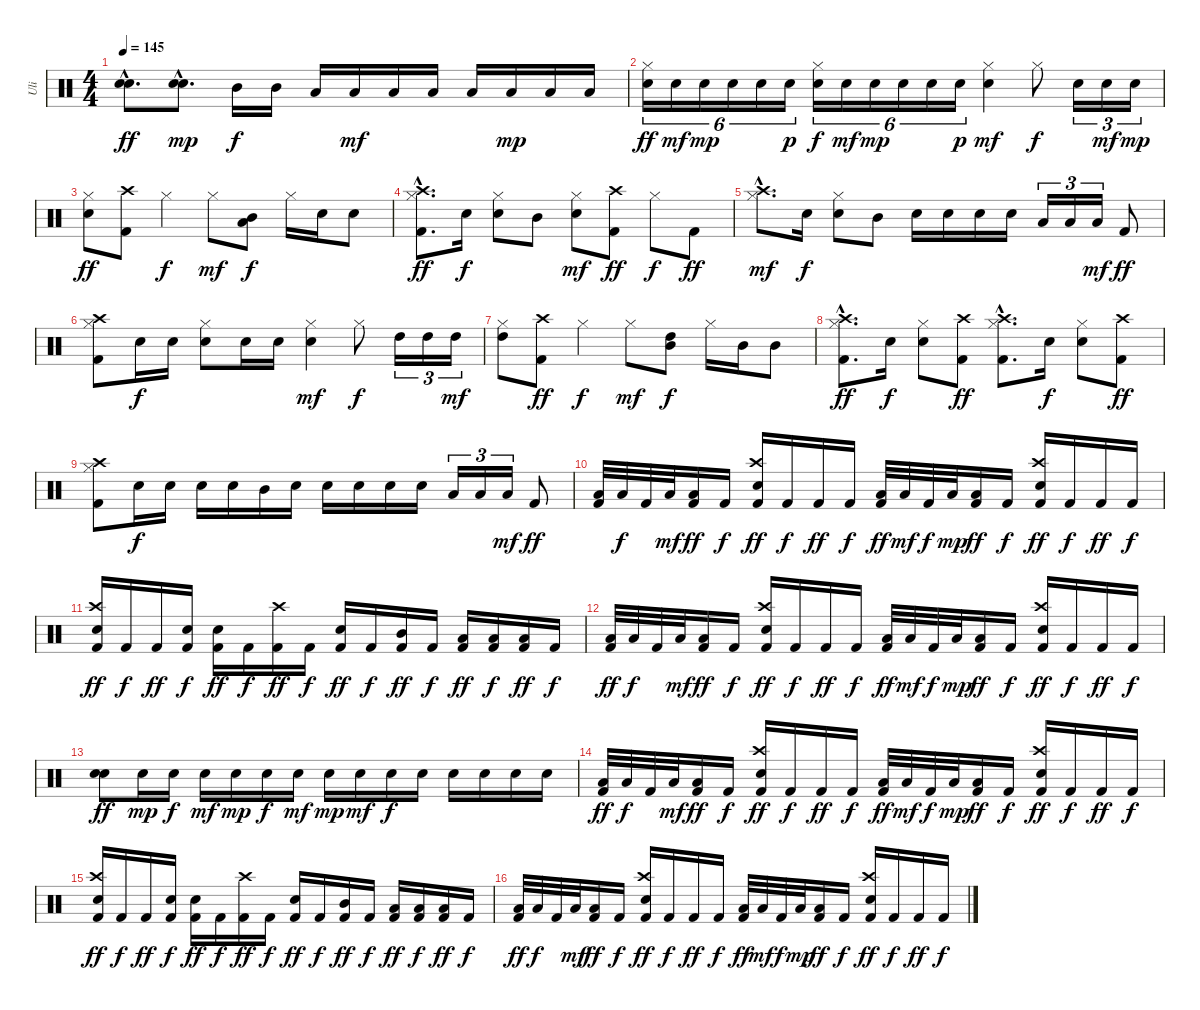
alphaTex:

\track ("Uli" "Uli") {instrument percussion}
\staff {score}
\articulation defaults
\ts (4 4)
\tempo 145
\clef neutral
\ks c
("Electric Snare (hit)"{hac} "Electric Snare (hit)"{hac}).8{d dy ff} ("Electric Snare (hit)"{hac} "Electric Snare (hit)"{hac}).8{d dy mp} "Mid Tom (hit)".16{dy f} "Mid Tom (hit)".16 "Low Tom (hit)".16 "Low Tom (hit)".16{dy mf} "Low Tom (hit)".16 "Low Tom (hit)".16 "Low Tom (hit)".16 "Low Tom (hit)".16{dy mp} "Low Tom (hit)".16 "Low Tom (hit)".16 |
("Hi-Hat (closed)" "Electric Snare (hit)").16{tu (6 4) dy ff} "Electric Snare (hit)".16{tu (6 4) dy mf} "Electric Snare (hit)".16{tu (6 4) dy mp} "Electric Snare (hit)".16{tu (6 4)} "Electric Snare (hit)".16{tu (6 4)} "Electric Snare (hit)".16{tu (6 4) dy p} ("Hi-Hat (closed)" "Electric Snare (hit)").16{tu (6 4) dy f} "Electric Snare (hit)".16{tu (6 4) dy mf} "Electric Snare (hit)".16{tu (6 4) dy mp} "Electric Snare (hit)".16{tu (6 4)} "Electric Snare (hit)".16{tu (6 4)} "Electric Snare (hit)".16{tu (6 4) dy p} ("Hi-Hat (closed)" "Electric Snare (hit)").4{dy mf} "Hi-Hat (closed)".8{dy f} "Electric Snare (hit)".16{tu (3 2)} "Electric Snare (hit)".16{tu (3 2) dy mf} "Electric Snare (hit)".16{tu (3 2) dy mp} |
("Hi-Hat (closed)" "Electric Snare (hit)").8{dy ff} ("Crash high (hit)" "Kick (hit) 2").8 "Hi-Hat (closed)".4{dy f} "Hi-Hat (closed)".8{dy mf} ("Low Tom (hit)" "Mid Tom (hit)").8{dy f} "Hi-Hat (closed)".16 "Electric Snare (hit)".16 "Electric Snare (hit)".8 |
("Crash high (hit)"{hac} "Hi-Hat (closed)"{hac} "Kick (hit) 2"{hac}).8{d dy ff} "Electric Snare (hit)".16{dy f} ("Hi-Hat (closed)" "Electric Snare (hit)").8 "Mid Tom (hit)".8 ("Hi-Hat (closed)" "Electric Snare (hit)").8{dy mf} ("Crash high (hit)" "Kick (hit) 2").8{dy ff} "Hi-Hat (closed)".8{dy f} "Kick (hit) 2".8{dy ff} |
("Crash high (hit)"{hac} "Hi-Hat (closed)"{hac}).8{d dy mf} "Electric Snare (hit)".16{dy f} ("Hi-Hat (closed)" "Electric Snare (hit)").8 "Mid Tom (hit)".8 "Electric Snare (hit)".16 "Electric Snare (hit)".16 "Electric Snare (hit)".16 "Electric Snare (hit)".16 "Low Tom (hit)".16{tu (3 2)} "Low Tom (hit)".16{tu (3 2)} "Low Tom (hit)".16{tu (3 2) dy mf} "Kick (hit) 2".8{dy ff} |
("Crash high (hit)" "Hi-Hat (closed)" "Kick (hit) 2").8 "Electric Snare (hit)".16{dy f} "Electric Snare (hit)".16 ("Hi-Hat (closed)" "Electric Snare (hit)").8 "Electric Snare (hit)".16 "Electric Snare (hit)".16 ("Hi-Hat (closed)" "Electric Snare (hit)").4{dy mf} "Hi-Hat (closed)".8{dy f} "High Tom (hit)".16{tu (3 2)} "High Tom (hit)".16{tu (3 2)} "High Tom (hit)".16{tu (3 2) dy mf} |
("Hi-Hat (closed)" "High Tom (hit)").8 ("Crash high (hit)" "Kick (hit) 2").8{dy ff} "Hi-Hat (closed)".4{dy f} "Hi-Hat (closed)".8{dy mf} ("Mid Tom (hit)" "High Tom (hit)").8{dy f} "Hi-Hat (closed)".16 "Mid Tom (hit)".16 "Mid Tom (hit)".8 |
("Crash high (hit)"{hac} "Hi-Hat (closed)"{hac} "Kick (hit) 2"{hac}).8{d dy ff} "Electric Snare (hit)".16{dy f} ("Hi-Hat (closed)" "Electric Snare (hit)").8 ("Crash high (hit)" "Kick (hit) 2").8{dy ff} ("Crash high (hit)"{hac} "Hi-Hat (closed)"{hac} "Kick (hit) 2"{hac}).8{d} "Electric Snare (hit)".16{dy f} ("Hi-Hat (closed)" "Electric Snare (hit)").8 ("Crash high (hit)" "Kick (hit) 2").8{dy ff} |
("Crash high (hit)" "Hi-Hat (closed)" "Kick (hit) 2").8 "Electric Snare (hit)".16{dy f} "Electric Snare (hit)".16 "Electric Snare (hit)".16 "Electric Snare (hit)".16 "Mid Tom (hit)".16 "Electric Snare (hit)".16 "Electric Snare (hit)".16 "Electric Snare (hit)".16 "Electric Snare (hit)".16 "Electric Snare (hit)".16 "Low Tom (hit)".16{tu (3 2)} "Low Tom (hit)".16{tu (3 2)} "Low Tom (hit)".16{tu (3 2) dy mf} "Kick (hit) 2".8{dy ff} |
("Low Tom (hit)" "Kick (hit) 2").32 "Low Tom (hit)".32{dy f} "Kick (hit) 2".32 "Low Tom (hit)".32{dy mf} ("Low Tom (hit)" "Kick (hit) 2").16{dy ff} "Kick (hit) 2".16{dy f} ("Crash high (hit)" "Electric Snare (hit)" "Kick (hit) 2").16{dy ff} "Kick (hit) 2".16{dy f} "Kick (hit) 2".16{dy ff} "Kick (hit) 2".16{dy f} ("Low Tom (hit)" "Kick (hit) 2").32{dy ff} "Low Tom (hit)".32{dy mf} "Kick (hit) 2".32{dy f} "Low Tom (hit)".32{dy mp} ("Low Tom (hit)" "Kick (hit) 2").16{dy ff} "Kick (hit) 2".16{dy f} ("Crash high (hit)" "Electric Snare (hit)" "Kick (hit) 2").16{dy ff} "Kick (hit) 2".16{dy f} "Kick (hit) 2".16{dy ff} "Kick (hit) 2".16{dy f} |
("Crash high (hit)" "Electric Snare (hit)" "Kick (hit) 2").16{dy ff} "Kick (hit) 2".16{dy f} "Kick (hit) 2".16{dy ff} ("Electric Snare (hit)" "Kick (hit) 2").16{dy f} ("Electric Snare (hit)" "Kick (hit) 2").16{dy ff} "Kick (hit) 2".16{dy f} ("Crash high (hit)" "Kick (hit) 2").16{dy ff} "Kick (hit) 2".16{dy f} ("Electric Snare (hit)" "Kick (hit) 2").16{dy ff} "Kick (hit) 2".16{dy f} ("Mid Tom (hit)" "Kick (hit) 2").16{dy ff} "Kick (hit) 2".16{dy f} ("Low Tom (hit)" "Kick (hit) 2").16{dy ff} ("Low Tom (hit)" "Kick (hit) 2").16{dy f} ("Low Tom (hit)" "Kick (hit) 2").16{dy ff} "Kick (hit) 2".16{dy f} |
("Low Tom (hit)" "Kick (hit) 2").32{dy ff} "Low Tom (hit)".32{dy f} "Kick (hit) 2".32 "Low Tom (hit)".32{dy mf} ("Low Tom (hit)" "Kick (hit) 2").16{dy ff} "Kick (hit) 2".16{dy f} ("Crash high (hit)" "Electric Snare (hit)" "Kick (hit) 2").16{dy ff} "Kick (hit) 2".16{dy f} "Kick (hit) 2".16{dy ff} "Kick (hit) 2".16{dy f} ("Low Tom (hit)" "Kick (hit) 2").32{dy ff} "Low Tom (hit)".32{dy mf} "Kick (hit) 2".32{dy f} "Low Tom (hit)".32{dy mp} ("Low Tom (hit)" "Kick (hit) 2").16{dy ff} "Kick (hit) 2".16{dy f} ("Crash high (hit)" "Electric Snare (hit)" "Kick (hit) 2").16{dy ff} "Kick (hit) 2".16{dy f} "Kick (hit) 2".16{dy ff} "Kick (hit) 2".16{dy f} |
("Electric Snare (hit)" "Electric Snare (hit)").8{dy ff} "Electric Snare (hit)".16{dy mp} "Electric Snare (hit)".16{dy f} "Electric Snare (hit)".16{dy mf} "Electric Snare (hit)".16{dy mp} "Electric Snare (hit)".16{dy f} "Electric Snare (hit)".16{dy mf} "Electric Snare (hit)".16{dy mp} "Electric Snare (hit)".16{dy mf} "Electric Snare (hit)".16{dy f} "Electric Snare (hit)".16 "Electric Snare (hit)".16 "Electric Snare (hit)".16 "Electric Snare (hit)".16 "Electric Snare (hit)".16 |
("Low Tom (hit)" "Kick (hit) 2").32{dy ff} "Low Tom (hit)".32{dy f} "Kick (hit) 2".32 "Low Tom (hit)".32{dy mf} ("Low Tom (hit)" "Kick (hit) 2").16{dy ff} "Kick (hit) 2".16{dy f} ("Crash high (hit)" "Electric Snare (hit)" "Kick (hit) 2").16{dy ff} "Kick (hit) 2".16{dy f} "Kick (hit) 2".16{dy ff} "Kick (hit) 2".16{dy f} ("Low Tom (hit)" "Kick (hit) 2").32{dy ff} "Low Tom (hit)".32{dy mf} "Kick (hit) 2".32{dy f} "Low Tom (hit)".32{dy mp} ("Low Tom (hit)" "Kick (hit) 2").16{dy ff} "Kick (hit) 2".16{dy f} ("Crash high (hit)" "Electric Snare (hit)" "Kick (hit) 2").16{dy ff} "Kick (hit) 2".16{dy f} "Kick (hit) 2".16{dy ff} "Kick (hit) 2".16{dy f} |
("Crash high (hit)" "Electric Snare (hit)" "Kick (hit) 2").16{dy ff} "Kick (hit) 2".16{dy f} "Kick (hit) 2".16{dy ff} ("Electric Snare (hit)" "Kick (hit) 2").16{dy f} ("Electric Snare (hit)" "Kick (hit) 2").16{dy ff} "Kick (hit) 2".16{dy f} ("Crash high (hit)" "Kick (hit) 2").16{dy ff} "Kick (hit) 2".16{dy f} ("Electric Snare (hit)" "Kick (hit) 2").16{dy ff} "Kick (hit) 2".16{dy f} ("Mid Tom (hit)" "Kick (hit) 2").16{dy ff} "Kick (hit) 2".16{dy f} ("Low Tom (hit)" "Kick (hit) 2").16{dy ff} ("Low Tom (hit)" "Kick (hit) 2").16{dy f} ("Low Tom (hit)" "Kick (hit) 2").16{dy ff} "Kick (hit) 2".16{dy f} |
("Low Tom (hit)" "Kick (hit) 2").32{dy ff} "Low Tom (hit)".32{dy f} "Kick (hit) 2".32 "Low Tom (hit)".32{dy mf} ("Low Tom (hit)" "Kick (hit) 2").16{dy ff} "Kick (hit) 2".16{dy f} ("Crash high (hit)" "Electric Snare (hit)" "Kick (hit) 2").16{dy ff} "Kick (hit) 2".16{dy f} "Kick (hit) 2".16{dy ff} "Kick (hit) 2".16{dy f} ("Low Tom (hit)" "Kick (hit) 2").32{dy ff} "Low Tom (hit)".32{dy mf} "Kick (hit) 2".32{dy f} "Low Tom (hit)".32{dy mp} ("Low Tom (hit)" "Kick (hit) 2").16{dy ff} "Kick (hit) 2".16{dy f} ("Crash high (hit)" "Electric Snare (hit)" "Kick (hit) 2").16{dy ff} "Kick (hit) 2".16{dy f} "Kick (hit) 2".16{dy ff} "Kick (hit) 2".16{dy f}
